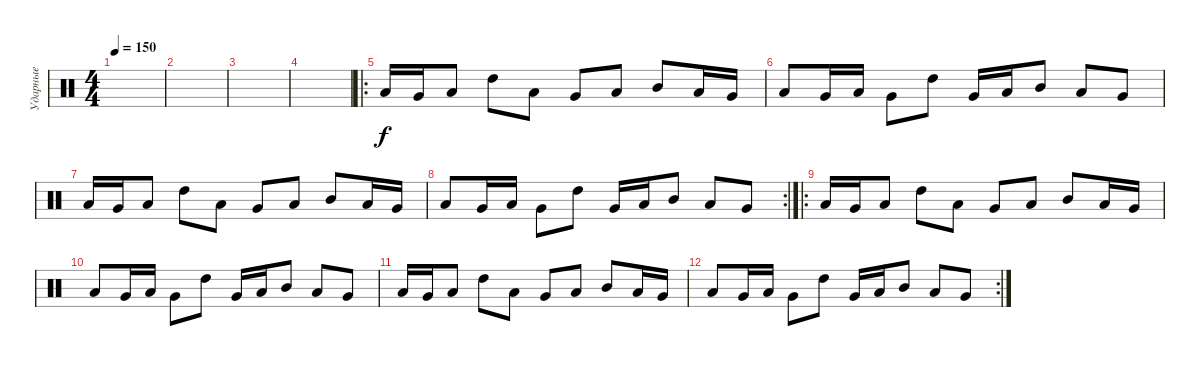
\track ("Ударные" "Ударные") {instrument percussion}
\staff {score}
\articulation defaults
\ts (4 4)
\tempo 150
\clef neutral
\ks c
|
|
|
|
\ro "Low Floor Tom (hit)".16 "Very Low Tom (hit)".16 "Low Tom (hit)".8 "High Tom (hit)".8 "Low Tom (hit)".8 "Very Low Tom (hit)".8 "Low Floor Tom (hit)".8 "Mid Tom (hit)".8 "Low Tom (hit)".16 "Very Low Tom (hit)".16
|
"Low Floor Tom (hit)".8 "Very Low Tom (hit)".16 "Low Tom (hit)".16 "Very Low Tom (hit)".8 "High Tom (hit)".8 "Very Low Tom (hit)".16 "Low Floor Tom (hit)".16 "Mid Tom (hit)".8 "Low Tom (hit)".8 "Very Low Tom (hit)".8 |
"Low Floor Tom (hit)".16 "Very Low Tom (hit)".16 "Low Tom (hit)".8 "High Tom (hit)".8 "Low Tom (hit)".8 "Very Low Tom (hit)".8 "Low Floor Tom (hit)".8 "Mid Tom (hit)".8 "Low Tom (hit)".16 "Very Low Tom (hit)".16 |
\rc 2 "Low Floor Tom (hit)".8 "Very Low Tom (hit)".16 "Low Tom (hit)".16 "Very Low Tom (hit)".8 "High Tom (hit)".8 "Very Low Tom (hit)".16 "Low Floor Tom (hit)".16 "Mid Tom (hit)".8 "Low Tom (hit)".8 "Very Low Tom (hit)".8
|
\ro "Low Floor Tom (hit)".16 "Very Low Tom (hit)".16 "Low Tom (hit)".8 "High Tom (hit)".8 "Low Tom (hit)".8 "Very Low Tom (hit)".8 "Low Floor Tom (hit)".8 "Mid Tom (hit)".8 "Low Tom (hit)".16 "Very Low Tom (hit)".16
|
"Low Floor Tom (hit)".8 "Very Low Tom (hit)".16 "Low Tom (hit)".16 "Very Low Tom (hit)".8 "High Tom (hit)".8 "Very Low Tom (hit)".16 "Low Floor Tom (hit)".16 "Mid Tom (hit)".8 "Low Tom (hit)".8 "Very Low Tom (hit)".8 |
"Low Floor Tom (hit)".16 "Very Low Tom (hit)".16 "Low Tom (hit)".8 "High Tom (hit)".8 "Low Tom (hit)".8 "Very Low Tom (hit)".8 "Low Floor Tom (hit)".8 "Mid Tom (hit)".8 "Low Tom (hit)".16 "Very Low Tom (hit)".16 |
\rc 2 "Low Floor Tom (hit)".8 "Very Low Tom (hit)".16 "Low Tom (hit)".16 "Very Low Tom (hit)".8 "High Tom (hit)".8 "Very Low Tom (hit)".16 "Low Floor Tom (hit)".16 "Mid Tom (hit)".8 "Low Tom (hit)".8 "Very Low Tom (hit)".8
